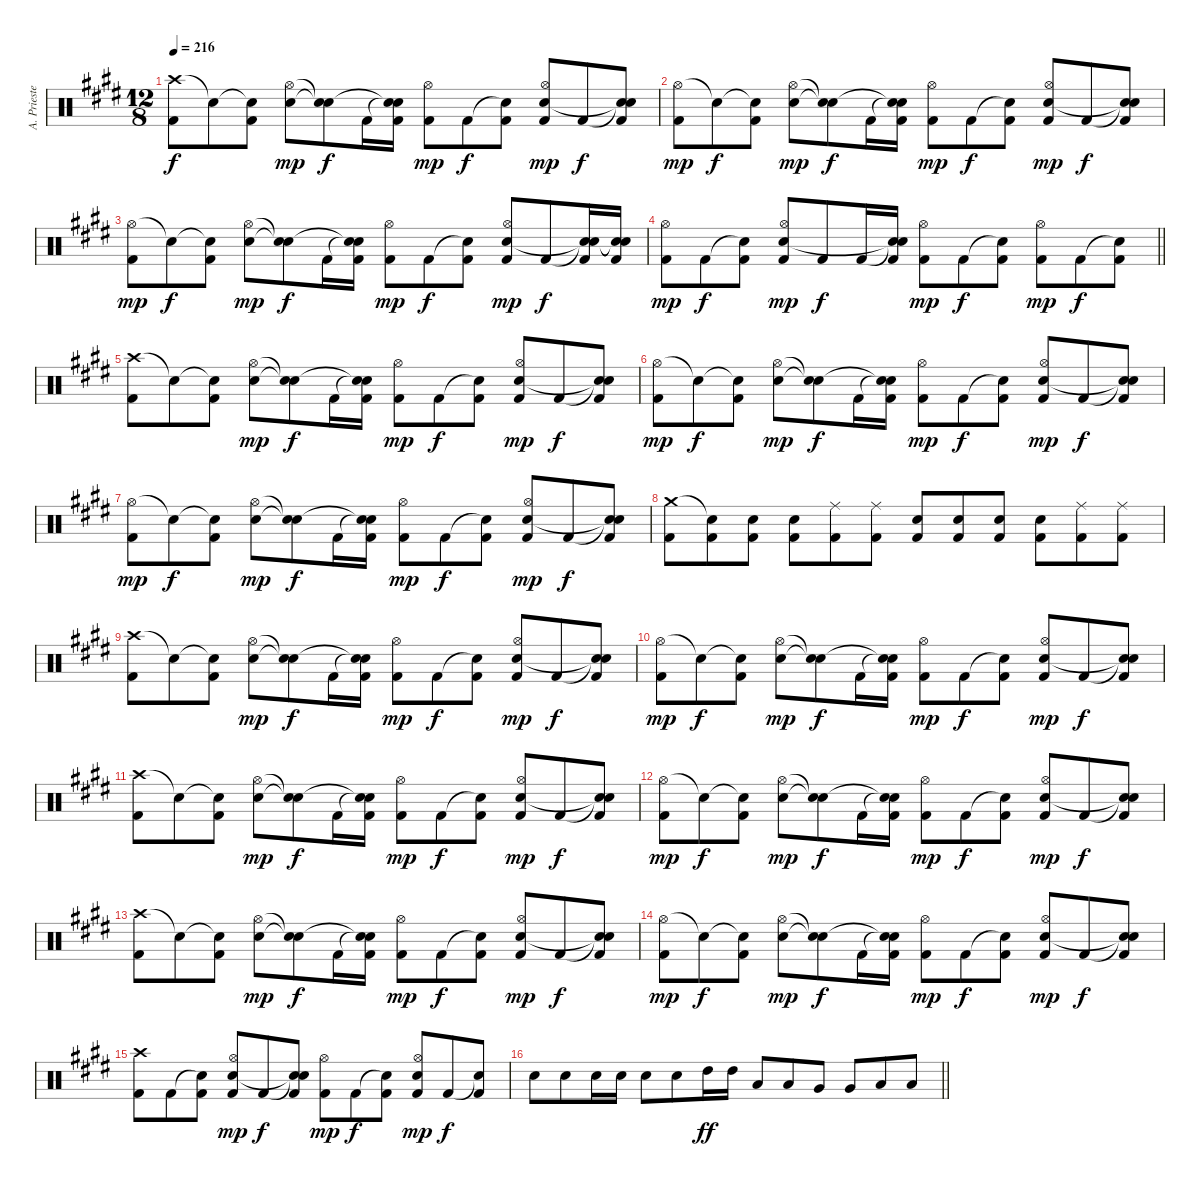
\track ("A. Priester" "A. Prieste") {instrument percussion}
\staff {score}
\articulation defaults
\ts (12 8)
\tempo 216
\clef neutral
\ks e
("Crash high (hit)" "Kick (hit) 2").8{dy f} "Snare (hit)"{t}.8 ("Snare (hit)"{t} "Kick (hit) 2").8 ("Hi-Hat (open)" "Electric Snare (hit)").8{dy mp} ("Snare (hit)"{t} "Snare (hit)"{t}).8{dy f} "Kick (hit) 2".16 ("Snare (hit)"{t} "Snare (hit)"{t} "Kick (hit) 2").16 ("Hi-Hat (open)" "Kick (hit) 2").8{dy mp} "Kick (hit) 2".8{dy f} ("Snare (hit)"{t} "Kick (hit) 2").8 ("Hi-Hat (open)" "Electric Snare (hit)" "Kick (hit) 2").8{dy mp} "Kick (hit) 2".8{dy f} ("Snare (hit)"{t} "Snare (hit)"{t} "Kick (hit) 2").8 |
("Hi-Hat (open)" "Kick (hit) 2").8{dy mp} "Snare (hit)"{t}.8{dy f} ("Snare (hit)"{t} "Kick (hit) 2").8 ("Hi-Hat (open)" "Electric Snare (hit)").8{dy mp} ("Snare (hit)"{t} "Snare (hit)"{t}).8{dy f} "Kick (hit) 2".16 ("Snare (hit)"{t} "Snare (hit)"{t} "Kick (hit) 2").16 ("Hi-Hat (open)" "Kick (hit) 2").8{dy mp} "Kick (hit) 2".8{dy f} ("Snare (hit)"{t} "Kick (hit) 2").8 ("Hi-Hat (open)" "Electric Snare (hit)" "Kick (hit) 2").8{dy mp} "Kick (hit) 2".8{dy f} ("Snare (hit)"{t} "Snare (hit)"{t} "Kick (hit) 2").8 |
("Hi-Hat (open)" "Kick (hit) 2").8{dy mp} "Snare (hit)"{t}.8{dy f} ("Snare (hit)"{t} "Kick (hit) 2").8 ("Hi-Hat (open)" "Electric Snare (hit)").8{dy mp} ("Snare (hit)"{t} "Snare (hit)"{t}).8{dy f} "Kick (hit) 2".16 ("Snare (hit)"{t} "Snare (hit)"{t} "Kick (hit) 2").16 ("Hi-Hat (open)" "Kick (hit) 2").8{dy mp} "Kick (hit) 2".8{dy f} ("Snare (hit)"{t} "Kick (hit) 2").8 ("Hi-Hat (open)" "Electric Snare (hit)" "Kick (hit) 2").8{dy mp} "Kick (hit) 2".8{dy f} ("Snare (hit)"{t} "Snare (hit)"{t} "Kick (hit) 2").16 ("Snare (hit)"{t} "Snare (hit)"{t} "Kick (hit) 2").16 |
\barLineRight lightlight
("Hi-Hat (open)" "Kick (hit) 2").8{dy mp} "Kick (hit) 2".8{dy f} ("Snare (hit)"{t} "Kick (hit) 2").8 ("Hi-Hat (open)" "Electric Snare (hit)" "Kick (hit) 2").8{dy mp} "Kick (hit) 2".8{dy f} "Kick (hit) 2".16 ("Snare (hit)"{t} "Snare (hit)"{t} "Kick (hit) 2").16 ("Hi-Hat (open)" "Kick (hit) 2").8{dy mp} "Kick (hit) 2".8{dy f} ("Snare (hit)"{t} "Kick (hit) 2").8 ("Hi-Hat (open)" "Kick (hit) 2").8{dy mp} "Kick (hit) 2".8{dy f} ("Snare (hit)"{t} "Kick (hit) 2").8 |
("Crash high (hit)" "Kick (hit) 2").8 "Snare (hit)"{t}.8 ("Snare (hit)"{t} "Kick (hit) 2").8 ("Hi-Hat (open)" "Electric Snare (hit)").8{dy mp} ("Snare (hit)"{t} "Snare (hit)"{t}).8{dy f} "Kick (hit) 2".16 ("Snare (hit)"{t} "Snare (hit)"{t} "Kick (hit) 2").16 ("Hi-Hat (open)" "Kick (hit) 2").8{dy mp} "Kick (hit) 2".8{dy f} ("Snare (hit)"{t} "Kick (hit) 2").8 ("Hi-Hat (open)" "Electric Snare (hit)" "Kick (hit) 2").8{dy mp} "Kick (hit) 2".8{dy f} ("Snare (hit)"{t} "Snare (hit)"{t} "Kick (hit) 2").8 |
("Hi-Hat (open)" "Kick (hit) 2").8{dy mp} "Snare (hit)"{t}.8{dy f} ("Snare (hit)"{t} "Kick (hit) 2").8 ("Hi-Hat (open)" "Electric Snare (hit)").8{dy mp} ("Snare (hit)"{t} "Snare (hit)"{t}).8{dy f} "Kick (hit) 2".16 ("Snare (hit)"{t} "Snare (hit)"{t} "Kick (hit) 2").16 ("Hi-Hat (open)" "Kick (hit) 2").8{dy mp} "Kick (hit) 2".8{dy f} ("Snare (hit)"{t} "Kick (hit) 2").8 ("Hi-Hat (open)" "Electric Snare (hit)" "Kick (hit) 2").8{dy mp} "Kick (hit) 2".8{dy f} ("Snare (hit)"{t} "Snare (hit)"{t} "Kick (hit) 2").8 |
("Hi-Hat (open)" "Kick (hit) 2").8{dy mp} "Snare (hit)"{t}.8{dy f} ("Snare (hit)"{t} "Kick (hit) 2").8 ("Hi-Hat (open)" "Electric Snare (hit)").8{dy mp} ("Snare (hit)"{t} "Snare (hit)"{t}).8{dy f} "Kick (hit) 2".16 ("Snare (hit)"{t} "Snare (hit)"{t} "Kick (hit) 2").16 ("Hi-Hat (open)" "Kick (hit) 2").8{dy mp} "Kick (hit) 2".8{dy f} ("Snare (hit)"{t} "Kick (hit) 2").8 ("Hi-Hat (open)" "Electric Snare (hit)" "Kick (hit) 2").8{dy mp} "Kick (hit) 2".8{dy f} ("Snare (hit)"{t} "Snare (hit)"{t} "Kick (hit) 2").8 |
("Crash medium (hit)" "Kick (hit) 2").8 ("Snare (hit)"{t} "Kick (hit) 2").8 ("Electric Snare (hit)" "Kick (hit) 2").8 ("Electric Snare (hit)" "Kick (hit) 2").8 ("Ride (middle)" "Kick (hit) 2").8 ("Ride (middle)" "Kick (hit) 2").8 ("Electric Snare (hit)" "Kick (hit) 2").8 ("Electric Snare (hit)" "Kick (hit) 2").8 ("Electric Snare (hit)" "Kick (hit) 2").8 ("Electric Snare (hit)" "Kick (hit) 2").8 ("Ride (middle)" "Kick (hit) 2").8 ("Ride (middle)" "Kick (hit) 2").8 |
("Crash high (hit)" "Kick (hit) 2").8 "Snare (hit)"{t}.8 ("Snare (hit)"{t} "Kick (hit) 2").8 ("Hi-Hat (open)" "Electric Snare (hit)").8{dy mp} ("Snare (hit)"{t} "Snare (hit)"{t}).8{dy f} "Kick (hit) 2".16 ("Snare (hit)"{t} "Snare (hit)"{t} "Kick (hit) 2").16 ("Hi-Hat (open)" "Kick (hit) 2").8{dy mp} "Kick (hit) 2".8{dy f} ("Snare (hit)"{t} "Kick (hit) 2").8 ("Hi-Hat (open)" "Electric Snare (hit)" "Kick (hit) 2").8{dy mp} "Kick (hit) 2".8{dy f} ("Snare (hit)"{t} "Snare (hit)"{t} "Kick (hit) 2").8 |
("Hi-Hat (open)" "Kick (hit) 2").8{dy mp} "Snare (hit)"{t}.8{dy f} ("Snare (hit)"{t} "Kick (hit) 2").8 ("Hi-Hat (open)" "Electric Snare (hit)").8{dy mp} ("Snare (hit)"{t} "Snare (hit)"{t}).8{dy f} "Kick (hit) 2".16 ("Snare (hit)"{t} "Snare (hit)"{t} "Kick (hit) 2").16 ("Hi-Hat (open)" "Kick (hit) 2").8{dy mp} "Kick (hit) 2".8{dy f} ("Snare (hit)"{t} "Kick (hit) 2").8 ("Hi-Hat (open)" "Electric Snare (hit)" "Kick (hit) 2").8{dy mp} "Kick (hit) 2".8{dy f} ("Snare (hit)"{t} "Snare (hit)"{t} "Kick (hit) 2").8 |
("Crash high (hit)" "Kick (hit) 2").8 "Snare (hit)"{t}.8 ("Snare (hit)"{t} "Kick (hit) 2").8 ("Hi-Hat (open)" "Electric Snare (hit)").8{dy mp} ("Snare (hit)"{t} "Snare (hit)"{t}).8{dy f} "Kick (hit) 2".16 ("Snare (hit)"{t} "Snare (hit)"{t} "Kick (hit) 2").16 ("Hi-Hat (open)" "Kick (hit) 2").8{dy mp} "Kick (hit) 2".8{dy f} ("Snare (hit)"{t} "Kick (hit) 2").8 ("Hi-Hat (open)" "Electric Snare (hit)" "Kick (hit) 2").8{dy mp} "Kick (hit) 2".8{dy f} ("Snare (hit)"{t} "Snare (hit)"{t} "Kick (hit) 2").8 |
("Hi-Hat (open)" "Kick (hit) 2").8{dy mp} "Snare (hit)"{t}.8{dy f} ("Snare (hit)"{t} "Kick (hit) 2").8 ("Hi-Hat (open)" "Electric Snare (hit)").8{dy mp} ("Snare (hit)"{t} "Snare (hit)"{t}).8{dy f} "Kick (hit) 2".16 ("Snare (hit)"{t} "Snare (hit)"{t} "Kick (hit) 2").16 ("Hi-Hat (open)" "Kick (hit) 2").8{dy mp} "Kick (hit) 2".8{dy f} ("Snare (hit)"{t} "Kick (hit) 2").8 ("Hi-Hat (open)" "Electric Snare (hit)" "Kick (hit) 2").8{dy mp} "Kick (hit) 2".8{dy f} ("Snare (hit)"{t} "Snare (hit)"{t} "Kick (hit) 2").8 |
("Crash high (hit)" "Kick (hit) 2").8 "Snare (hit)"{t}.8 ("Snare (hit)"{t} "Kick (hit) 2").8 ("Hi-Hat (open)" "Electric Snare (hit)").8{dy mp} ("Snare (hit)"{t} "Snare (hit)"{t}).8{dy f} "Kick (hit) 2".16 ("Snare (hit)"{t} "Snare (hit)"{t} "Kick (hit) 2").16 ("Hi-Hat (open)" "Kick (hit) 2").8{dy mp} "Kick (hit) 2".8{dy f} ("Snare (hit)"{t} "Kick (hit) 2").8 ("Hi-Hat (open)" "Electric Snare (hit)" "Kick (hit) 2").8{dy mp} "Kick (hit) 2".8{dy f} ("Snare (hit)"{t} "Snare (hit)"{t} "Kick (hit) 2").8 |
("Hi-Hat (open)" "Kick (hit) 2").8{dy mp} "Snare (hit)"{t}.8{dy f} ("Snare (hit)"{t} "Kick (hit) 2").8 ("Hi-Hat (open)" "Electric Snare (hit)").8{dy mp} ("Snare (hit)"{t} "Snare (hit)"{t}).8{dy f} "Kick (hit) 2".16 ("Snare (hit)"{t} "Snare (hit)"{t} "Kick (hit) 2").16 ("Hi-Hat (open)" "Kick (hit) 2").8{dy mp} "Kick (hit) 2".8{dy f} ("Snare (hit)"{t} "Kick (hit) 2").8 ("Hi-Hat (open)" "Electric Snare (hit)" "Kick (hit) 2").8{dy mp} "Kick (hit) 2".8{dy f} ("Snare (hit)"{t} "Snare (hit)"{t} "Kick (hit) 2").8 |
("Crash high (hit)" "Kick (hit) 2").8 "Kick (hit) 2".8 ("Snare (hit)"{t} "Kick (hit) 2").8 ("Hi-Hat (open)" "Electric Snare (hit)" "Kick (hit) 2").8{dy mp} "Kick (hit) 2".8{dy f} ("Snare (hit)"{t} "Snare (hit)"{t} "Kick (hit) 2").8 ("Hi-Hat (open)" "Kick (hit) 2").8{dy mp} "Kick (hit) 2".8{dy f} ("Snare (hit)"{t} "Kick (hit) 2").8 ("Hi-Hat (open)" "Electric Snare (hit)" "Kick (hit) 2").8{dy mp} "Kick (hit) 2".8{dy f} ("Snare (hit)"{t} "Kick (hit) 2").8 |
\barLineRight lightlight "Electric Snare (hit)".8 "Electric Snare (hit)".8 "Electric Snare (hit)".16 "Electric Snare (hit)".16 "Electric Snare (hit)".8 "Electric Snare (hit)".8 "High Tom (hit)".16{dy ff} "High Tom (hit)".16 "Low Tom (hit)".8 "Low Tom (hit)".8 "Very Low Tom (hit)".8 "Very Low Tom (hit)".8 "Low Floor Tom (hit)".8 "Low Floor Tom (hit)".8
